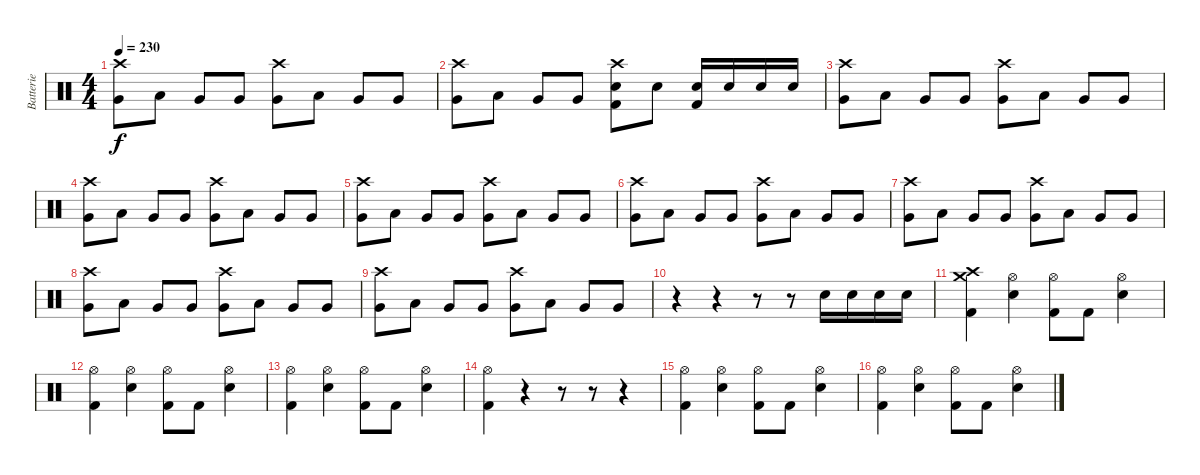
\track ("Batterie" "Batterie") {instrument percussion}
\staff {score}
\articulation defaults
\ts (4 4)
\tempo 230
\clef neutral
\ks c
("Crash high (hit)" "Very Low Tom (hit)").8{dy f} "Low Floor Tom (hit)".8 "Very Low Tom (hit)".8 "Very Low Tom (hit)".8 ("Crash high (hit)" "Very Low Tom (hit)").8 "Low Floor Tom (hit)".8 "Very Low Tom (hit)".8 "Very Low Tom (hit)".8 |
("Crash high (hit)" "Very Low Tom (hit)").8 "Low Floor Tom (hit)".8 "Very Low Tom (hit)".8 "Very Low Tom (hit)".8 ("Crash high (hit)" "Electric Snare (hit)" "Kick (hit) 2").8 "Electric Snare (hit)".8 ("Electric Snare (hit)" "Kick (hit) 2").16 "Electric Snare (hit)".16 "Electric Snare (hit)".16 "Electric Snare (hit)".16 |
("Crash high (hit)" "Very Low Tom (hit)").8 "Low Floor Tom (hit)".8 "Very Low Tom (hit)".8 "Very Low Tom (hit)".8 ("Crash high (hit)" "Very Low Tom (hit)").8 "Low Floor Tom (hit)".8 "Very Low Tom (hit)".8 "Very Low Tom (hit)".8 |
("Crash high (hit)" "Very Low Tom (hit)").8 "Low Floor Tom (hit)".8 "Very Low Tom (hit)".8 "Very Low Tom (hit)".8 ("Crash high (hit)" "Very Low Tom (hit)").8 "Low Floor Tom (hit)".8 "Very Low Tom (hit)".8 "Very Low Tom (hit)".8 |
("Crash high (hit)" "Very Low Tom (hit)").8 "Low Floor Tom (hit)".8 "Very Low Tom (hit)".8 "Very Low Tom (hit)".8 ("Crash high (hit)" "Very Low Tom (hit)").8 "Low Floor Tom (hit)".8 "Very Low Tom (hit)".8 "Very Low Tom (hit)".8 |
("Crash high (hit)" "Very Low Tom (hit)").8 "Low Floor Tom (hit)".8 "Very Low Tom (hit)".8 "Very Low Tom (hit)".8 ("Crash high (hit)" "Very Low Tom (hit)").8 "Low Floor Tom (hit)".8 "Very Low Tom (hit)".8 "Very Low Tom (hit)".8 |
("Crash high (hit)" "Very Low Tom (hit)").8 "Low Floor Tom (hit)".8 "Very Low Tom (hit)".8 "Very Low Tom (hit)".8 ("Crash high (hit)" "Very Low Tom (hit)").8 "Low Floor Tom (hit)".8 "Very Low Tom (hit)".8 "Very Low Tom (hit)".8 |
("Crash high (hit)" "Very Low Tom (hit)").8 "Low Floor Tom (hit)".8 "Very Low Tom (hit)".8 "Very Low Tom (hit)".8 ("Crash high (hit)" "Very Low Tom (hit)").8 "Low Floor Tom (hit)".8 "Very Low Tom (hit)".8 "Very Low Tom (hit)".8 |
("Crash high (hit)" "Very Low Tom (hit)").8 "Low Floor Tom (hit)".8 "Very Low Tom (hit)".8 "Very Low Tom (hit)".8 ("Crash high (hit)" "Very Low Tom (hit)").8 "Low Floor Tom (hit)".8 "Very Low Tom (hit)".8 "Very Low Tom (hit)".8 |
r.4 r.4 r.8 r.8 "Electric Snare (hit)".16 "Electric Snare (hit)".16 "Electric Snare (hit)".16 "Electric Snare (hit)".16 |
("Crash high (hit)" "Crash medium (hit)" "Kick (hit) 2").4 ("Hi-Hat (open)" "Electric Snare (hit)").4 ("Hi-Hat (open)" "Kick (hit) 2").8 "Kick (hit) 2".8 ("Hi-Hat (open)" "Electric Snare (hit)").4 |
("Hi-Hat (open)" "Kick (hit) 2").4 ("Hi-Hat (open)" "Electric Snare (hit)").4 ("Hi-Hat (open)" "Kick (hit) 2").8 "Kick (hit) 2".8 ("Hi-Hat (open)" "Electric Snare (hit)").4 |
("Hi-Hat (open)" "Kick (hit) 2").4 ("Hi-Hat (open)" "Electric Snare (hit)").4 ("Hi-Hat (open)" "Kick (hit) 2").8 "Kick (hit) 2".8 ("Hi-Hat (open)" "Electric Snare (hit)").4 |
("Hi-Hat (open)" "Kick (hit) 2").4 r.4 r.8 r.8 r.4 |
("Hi-Hat (open)" "Kick (hit) 2").4 ("Hi-Hat (open)" "Electric Snare (hit)").4 ("Hi-Hat (open)" "Kick (hit) 2").8 "Kick (hit) 2".8 ("Hi-Hat (open)" "Electric Snare (hit)").4 |
("Hi-Hat (open)" "Kick (hit) 2").4 ("Hi-Hat (open)" "Electric Snare (hit)").4 ("Hi-Hat (open)" "Kick (hit) 2").8 "Kick (hit) 2".8 ("Hi-Hat (open)" "Electric Snare (hit)").4
